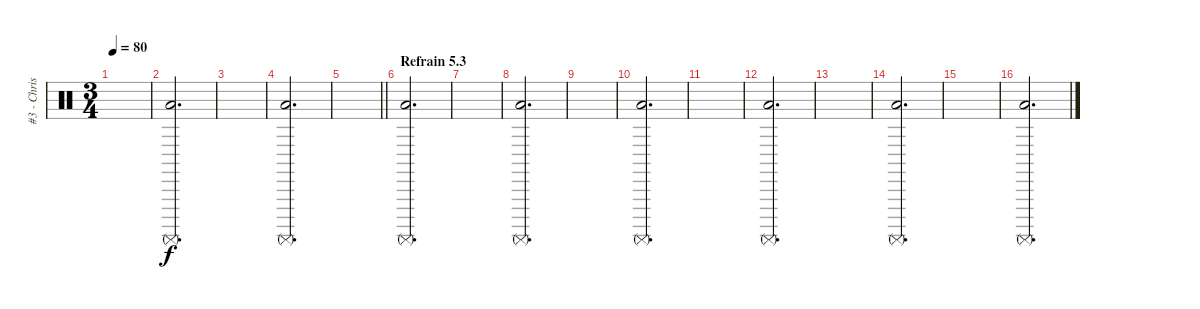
\track ("#3 - Chris Fehn" "#3 - Chris") {instrument percussion}
\staff {score}
\articulation defaults
\ts (3 4)
\tempo 80
\clef neutral
\ks c
|
("Low Floor Tom (hit)" "Surdo (mute)").2{d volume 16} |
|
("Low Floor Tom (hit)" "Surdo (mute)").2{d} |
\barLineRight lightlight
|
\section ("" "Refrain 5.3")
("Low Floor Tom (hit)" "Surdo (mute)").2{d} |
|
("Low Floor Tom (hit)" "Surdo (mute)").2{d} |
|
("Low Floor Tom (hit)" "Surdo (mute)").2{d volume 16} |
|
("Low Floor Tom (hit)" "Surdo (mute)").2{d} |
|
("Low Floor Tom (hit)" "Surdo (mute)").2{d} |
|
("Low Floor Tom (hit)" "Surdo (mute)").2{d}
